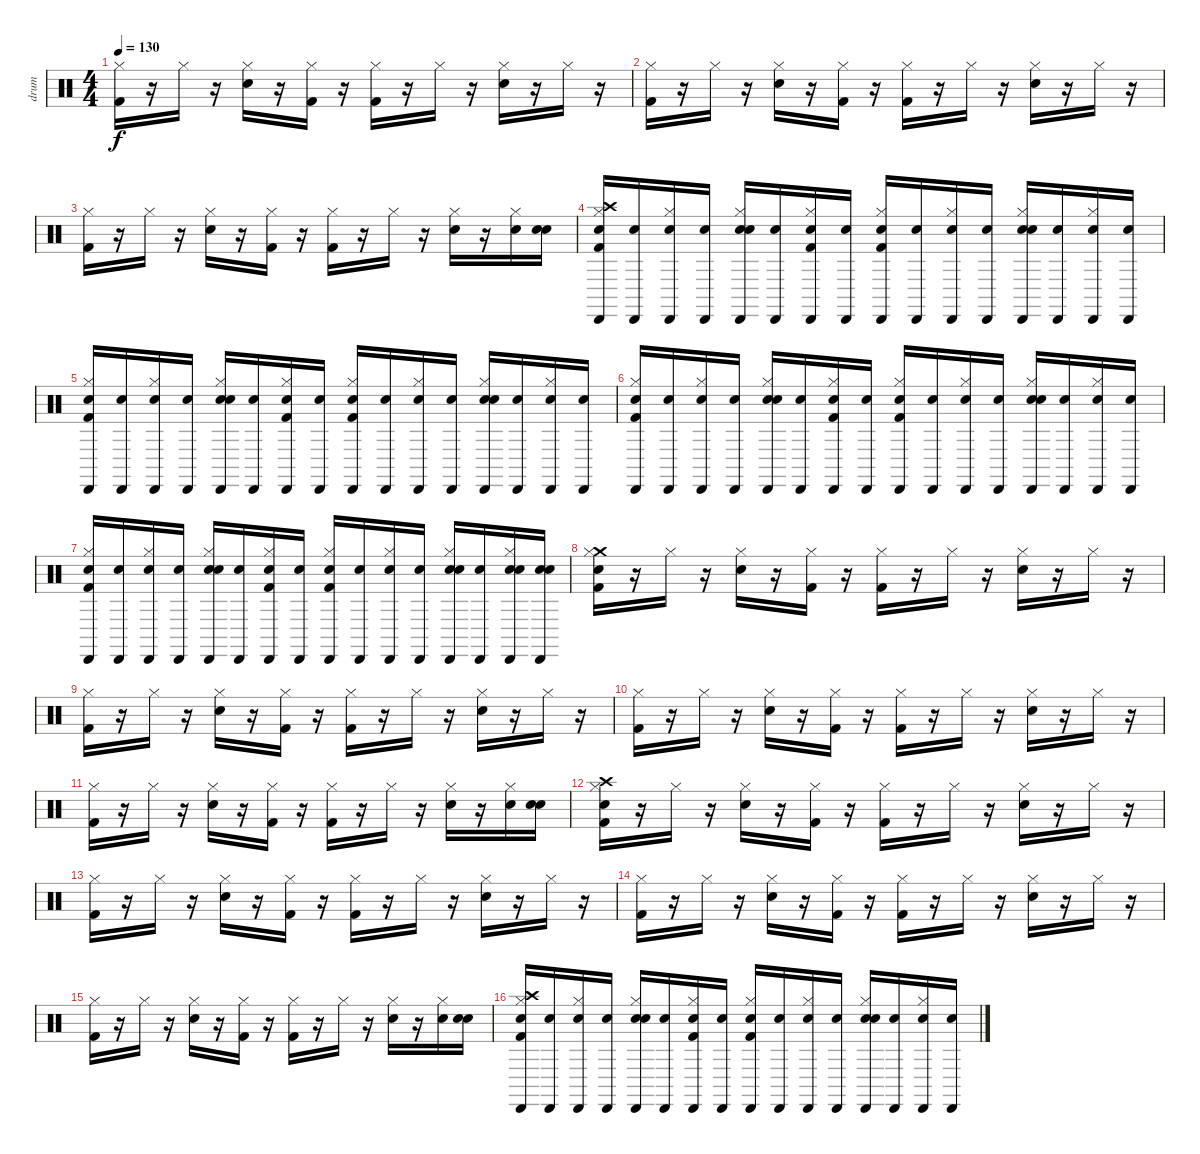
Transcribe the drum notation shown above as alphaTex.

\track ("drum" "drum") {instrument percussion}
\staff {score}
\articulation defaults
\ts (4 4)
\tempo 130
\clef neutral
\ks c
("Kick (hit) 2" "Hi-Hat (closed)").16{dy f} r.16 "Hi-Hat (closed)".16 r.16 ("Hi-Hat (closed)" "Snare (hit) 2").16 r.16 ("Hi-Hat (closed)" "Kick (hit) 2").16 r.16 ("Kick (hit) 2" "Hi-Hat (closed)").16 r.16 "Hi-Hat (closed)".16 r.16 ("Hi-Hat (closed)" "Snare (hit) 2").16 r.16 "Hi-Hat (closed)".16 r.16 |
("Hi-Hat (closed)" "Kick (hit) 2").16 r.16 "Hi-Hat (closed)".16 r.16 ("Hi-Hat (closed)" "Snare (hit) 2").16 r.16 ("Kick (hit) 2" "Hi-Hat (closed)").16 r.16 ("Hi-Hat (closed)" "Kick (hit) 2").16 r.16 "Hi-Hat (closed)".16 r.16 ("Hi-Hat (closed)" "Snare (hit) 2").16 r.16 "Hi-Hat (closed)".16 r.16 |
("Hi-Hat (closed)" "Kick (hit) 2").16 r.16 "Hi-Hat (closed)".16 r.16 ("Hi-Hat (closed)" "Snare (hit) 2").16 r.16 ("Hi-Hat (closed)" "Kick (hit) 2").16 r.16 ("Hi-Hat (closed)" "Kick (hit) 2").16 r.16 "Hi-Hat (closed)".16 r.16 ("Hi-Hat (closed)" "Snare (hit) 2").16 r.16 ("Hi-Hat (closed)" "Snare (hit) 2").16 ("Snare (hit)" "Snare (hit) 2").16 |
("Snare (hit)" "Hi-Hat (closed)" "Crash high (hit)" "Cabasa (hit)" "Kick (hit) 2").16 ("Snare (hit)" "Cabasa (hit)").16 ("Snare (hit)" "Cabasa (hit)" "Hi-Hat (closed)").16 ("Snare (hit)" "Cabasa (hit)").16 ("Snare (hit)" "Snare (hit) 2" "Cabasa (hit)" "Hi-Hat (closed)").16 ("Snare (hit)" "Cabasa (hit)").16 ("Snare (hit)" "Hi-Hat (closed)" "Kick (hit) 2" "Cabasa (hit)").16 ("Snare (hit)" "Cabasa (hit)").16 ("Snare (hit)" "Cabasa (hit)" "Kick (hit) 2" "Hi-Hat (closed)").16 ("Snare (hit)" "Cabasa (hit)").16 ("Snare (hit)" "Hi-Hat (closed)" "Cabasa (hit)").16 ("Snare (hit)" "Cabasa (hit)").16 ("Snare (hit)" "Snare (hit) 2" "Hi-Hat (closed)" "Cabasa (hit)").16 ("Snare (hit)" "Cabasa (hit)").16 ("Snare (hit)" "Cabasa (hit)" "Hi-Hat (closed)").16 ("Snare (hit)" "Cabasa (hit)").16 |
("Snare (hit)" "Kick (hit) 2" "Cabasa (hit)" "Hi-Hat (closed)").16 ("Snare (hit)" "Cabasa (hit)").16 ("Snare (hit)" "Cabasa (hit)" "Hi-Hat (closed)").16 ("Snare (hit)" "Cabasa (hit)").16 ("Snare (hit)" "Snare (hit) 2" "Hi-Hat (closed)" "Cabasa (hit)").16 ("Snare (hit)" "Cabasa (hit)").16 ("Snare (hit)" "Hi-Hat (closed)" "Cabasa (hit)" "Kick (hit) 2").16 ("Snare (hit)" "Cabasa (hit)").16 ("Snare (hit)" "Kick (hit) 2" "Hi-Hat (closed)" "Cabasa (hit)").16 ("Snare (hit)" "Cabasa (hit)").16 ("Snare (hit)" "Cabasa (hit)" "Hi-Hat (closed)").16 ("Snare (hit)" "Cabasa (hit)").16 ("Snare (hit)" "Snare (hit) 2" "Hi-Hat (closed)" "Cabasa (hit)").16 ("Snare (hit)" "Cabasa (hit)").16 ("Snare (hit)" "Hi-Hat (closed)" "Cabasa (hit)").16 ("Snare (hit)" "Cabasa (hit)").16 |
("Snare (hit)" "Kick (hit) 2" "Hi-Hat (closed)" "Cabasa (hit)").16 ("Snare (hit)" "Cabasa (hit)").16 ("Snare (hit)" "Cabasa (hit)" "Hi-Hat (closed)").16 ("Snare (hit)" "Cabasa (hit)").16 ("Snare (hit)" "Hi-Hat (closed)" "Snare (hit) 2" "Cabasa (hit)").16 ("Snare (hit)" "Cabasa (hit)").16 ("Snare (hit)" "Hi-Hat (closed)" "Kick (hit) 2" "Cabasa (hit)").16 ("Snare (hit)" "Cabasa (hit)").16 ("Snare (hit)" "Kick (hit) 2" "Hi-Hat (closed)" "Cabasa (hit)").16 ("Snare (hit)" "Cabasa (hit)").16 ("Snare (hit)" "Cabasa (hit)" "Hi-Hat (closed)").16 ("Snare (hit)" "Cabasa (hit)").16 ("Snare (hit)" "Snare (hit) 2" "Hi-Hat (closed)" "Cabasa (hit)").16 ("Snare (hit)" "Cabasa (hit)").16 ("Snare (hit)" "Cabasa (hit)" "Hi-Hat (closed)").16 ("Snare (hit)" "Cabasa (hit)").16 |
("Snare (hit)" "Hi-Hat (closed)" "Kick (hit) 2" "Cabasa (hit)").16 ("Snare (hit)" "Cabasa (hit)").16 ("Snare (hit)" "Cabasa (hit)" "Hi-Hat (closed)").16 ("Snare (hit)" "Cabasa (hit)").16 ("Snare (hit)" "Cabasa (hit)" "Snare (hit) 2" "Hi-Hat (closed)").16 ("Snare (hit)" "Cabasa (hit)").16 ("Snare (hit)" "Cabasa (hit)" "Hi-Hat (closed)" "Kick (hit) 2").16 ("Snare (hit)" "Cabasa (hit)").16 ("Snare (hit)" "Kick (hit) 2" "Hi-Hat (closed)" "Cabasa (hit)").16 ("Snare (hit)" "Cabasa (hit)").16 ("Snare (hit)" "Hi-Hat (closed)" "Cabasa (hit)").16 ("Snare (hit)" "Cabasa (hit)").16 ("Snare (hit)" "Hi-Hat (closed)" "Snare (hit) 2" "Cabasa (hit)").16 ("Snare (hit)" "Cabasa (hit)").16 ("Snare (hit)" "Hi-Hat (closed)" "Snare (hit) 2" "Cabasa (hit)").16 ("Snare (hit)" "Cabasa (hit)" "Snare (hit) 2").16 |
("Snare (hit)" "Kick (hit) 2" "Crash medium (hit)" "Hi-Hat (closed)").16 r.16 "Hi-Hat (closed)".16 r.16 ("Snare (hit) 2" "Hi-Hat (closed)").16 r.16 ("Kick (hit) 2" "Hi-Hat (closed)").16 r.16 ("Kick (hit) 2" "Hi-Hat (closed)").16 r.16 "Hi-Hat (closed)".16 r.16 ("Snare (hit) 2" "Hi-Hat (closed)").16 r.16 "Hi-Hat (closed)".16 r.16 |
("Hi-Hat (closed)" "Kick (hit) 2").16 r.16 "Hi-Hat (closed)".16 r.16 ("Hi-Hat (closed)" "Snare (hit) 2").16 r.16 ("Hi-Hat (closed)" "Kick (hit) 2").16 r.16 ("Hi-Hat (closed)" "Kick (hit) 2").16 r.16 "Hi-Hat (closed)".16 r.16 ("Snare (hit) 2" "Hi-Hat (closed)").16 r.16 "Hi-Hat (closed)".16 r.16 |
("Kick (hit) 2" "Hi-Hat (closed)").16 r.16 "Hi-Hat (closed)".16 r.16 ("Snare (hit) 2" "Hi-Hat (closed)").16 r.16 ("Kick (hit) 2" "Hi-Hat (closed)").16 r.16 ("Hi-Hat (closed)" "Kick (hit) 2").16 r.16 "Hi-Hat (closed)".16 r.16 ("Hi-Hat (closed)" "Snare (hit) 2").16 r.16 "Hi-Hat (closed)".16 r.16 |
("Kick (hit) 2" "Hi-Hat (closed)").16 r.16 "Hi-Hat (closed)".16 r.16 ("Hi-Hat (closed)" "Snare (hit) 2").16 r.16 ("Hi-Hat (closed)" "Kick (hit) 2").16 r.16 ("Kick (hit) 2" "Hi-Hat (closed)").16 r.16 "Hi-Hat (closed)".16 r.16 ("Snare (hit) 2" "Hi-Hat (closed)").16 r.16 ("Snare (hit) 2" "Hi-Hat (closed)").16 ("Snare (hit)" "Snare (hit) 2").16 |
("Snare (hit)" "Crash high (hit)" "Hi-Hat (closed)" "Kick (hit) 2").16 r.16 "Hi-Hat (closed)".16 r.16 ("Hi-Hat (closed)" "Snare (hit) 2").16 r.16 ("Kick (hit) 2" "Hi-Hat (closed)").16 r.16 ("Hi-Hat (closed)" "Kick (hit) 2").16 r.16 "Hi-Hat (closed)".16 r.16 ("Snare (hit) 2" "Hi-Hat (closed)").16 r.16 "Hi-Hat (closed)".16 r.16 |
("Hi-Hat (closed)" "Kick (hit) 2").16 r.16 "Hi-Hat (closed)".16 r.16 ("Snare (hit) 2" "Hi-Hat (closed)").16 r.16 ("Kick (hit) 2" "Hi-Hat (closed)").16 r.16 ("Kick (hit) 2" "Hi-Hat (closed)").16 r.16 "Hi-Hat (closed)".16 r.16 ("Hi-Hat (closed)" "Snare (hit) 2").16 r.16 "Hi-Hat (closed)".16 r.16 |
("Hi-Hat (closed)" "Kick (hit) 2").16 r.16 "Hi-Hat (closed)".16 r.16 ("Snare (hit) 2" "Hi-Hat (closed)").16 r.16 ("Hi-Hat (closed)" "Kick (hit) 2").16 r.16 ("Hi-Hat (closed)" "Kick (hit) 2").16 r.16 "Hi-Hat (closed)".16 r.16 ("Snare (hit) 2" "Hi-Hat (closed)").16 r.16 "Hi-Hat (closed)".16 r.16 |
("Hi-Hat (closed)" "Kick (hit) 2").16 r.16 "Hi-Hat (closed)".16 r.16 ("Snare (hit) 2" "Hi-Hat (closed)").16 r.16 ("Hi-Hat (closed)" "Kick (hit) 2").16 r.16 ("Hi-Hat (closed)" "Kick (hit) 2").16 r.16 "Hi-Hat (closed)".16 r.16 ("Snare (hit) 2" "Hi-Hat (closed)").16 r.16 ("Hi-Hat (closed)" "Snare (hit) 2").16 ("Snare (hit)" "Snare (hit) 2").16 |
("Snare (hit)" "Kick (hit) 2" "Hi-Hat (closed)" "Cabasa (hit)" "Crash high (hit)").16 ("Snare (hit)" "Cabasa (hit)").16 ("Snare (hit)" "Cabasa (hit)" "Hi-Hat (closed)").16 ("Snare (hit)" "Cabasa (hit)").16 ("Snare (hit)" "Snare (hit) 2" "Hi-Hat (closed)" "Cabasa (hit)").16 ("Snare (hit)" "Cabasa (hit)").16 ("Snare (hit)" "Hi-Hat (closed)" "Kick (hit) 2" "Cabasa (hit)").16 ("Snare (hit)" "Cabasa (hit)").16 ("Snare (hit)" "Hi-Hat (closed)" "Cabasa (hit)" "Kick (hit) 2").16 ("Snare (hit)" "Cabasa (hit)").16 ("Snare (hit)" "Hi-Hat (closed)" "Cabasa (hit)").16 ("Snare (hit)" "Cabasa (hit)").16 ("Snare (hit)" "Snare (hit) 2" "Cabasa (hit)" "Hi-Hat (closed)").16 ("Snare (hit)" "Cabasa (hit)").16 ("Snare (hit)" "Hi-Hat (closed)" "Cabasa (hit)").16 ("Snare (hit)" "Cabasa (hit)").16
